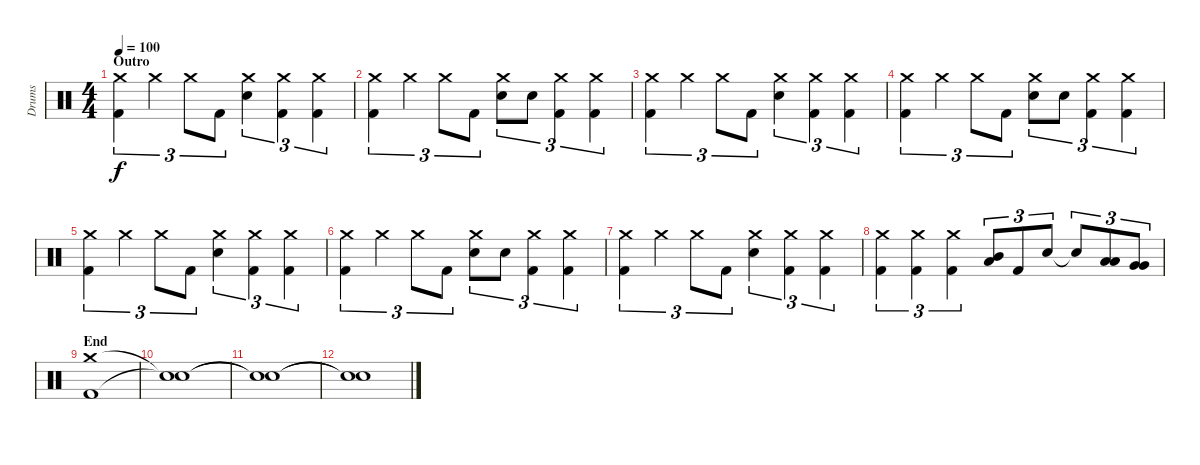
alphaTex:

\track ("Drums" "Drums") {instrument percussion}
\staff {score}
\articulation defaults
\ts (4 4)
\section ("" "Outro")
\tempo 100
\clef neutral
\ks c
("Crash medium (hit)" "Kick (hit) 2").4{tu (3 2) dy f} "Crash medium (hit)".4{tu (3 2)} "Crash medium (hit)".8{tu (3 2)} "Kick (hit) 2".8{tu (3 2)} ("Crash medium (hit)" "Electric Snare (hit)").4{tu (3 2)} ("Crash medium (hit)" "Kick (hit) 2").4{tu (3 2)} ("Crash medium (hit)" "Kick (hit) 2").4{tu (3 2)} |
("Crash medium (hit)" "Kick (hit) 2").4{tu (3 2)} "Crash medium (hit)".4{tu (3 2)} "Crash medium (hit)".8{tu (3 2)} "Kick (hit) 2".8{tu (3 2)} ("Crash medium (hit)" "Electric Snare (hit)").8{tu (3 2)} "Electric Snare (hit)".8{tu (3 2)} ("Crash medium (hit)" "Kick (hit) 2").4{tu (3 2)} ("Crash medium (hit)" "Kick (hit) 2").4{tu (3 2)} |
("Crash medium (hit)" "Kick (hit) 2").4{tu (3 2)} "Crash medium (hit)".4{tu (3 2)} "Crash medium (hit)".8{tu (3 2)} "Kick (hit) 2".8{tu (3 2)} ("Crash medium (hit)" "Electric Snare (hit)").4{tu (3 2)} ("Crash medium (hit)" "Kick (hit) 2").4{tu (3 2)} ("Crash medium (hit)" "Kick (hit) 2").4{tu (3 2)} |
("Crash medium (hit)" "Kick (hit) 2").4{tu (3 2)} "Crash medium (hit)".4{tu (3 2)} "Crash medium (hit)".8{tu (3 2)} "Kick (hit) 2".8{tu (3 2)} ("Crash medium (hit)" "Electric Snare (hit)").8{tu (3 2)} "Electric Snare (hit)".8{tu (3 2)} ("Crash medium (hit)" "Kick (hit) 2").4{tu (3 2)} ("Crash medium (hit)" "Kick (hit) 2").4{tu (3 2)} |
("Crash medium (hit)" "Kick (hit) 2").4{tu (3 2)} "Crash medium (hit)".4{tu (3 2)} "Crash medium (hit)".8{tu (3 2)} "Kick (hit) 2".8{tu (3 2)} ("Crash medium (hit)" "Electric Snare (hit)").4{tu (3 2)} ("Crash medium (hit)" "Kick (hit) 2").4{tu (3 2)} ("Crash medium (hit)" "Kick (hit) 2").4{tu (3 2)} |
("Crash medium (hit)" "Kick (hit) 2").4{tu (3 2)} "Crash medium (hit)".4{tu (3 2)} "Crash medium (hit)".8{tu (3 2)} "Kick (hit) 2".8{tu (3 2)} ("Crash medium (hit)" "Electric Snare (hit)").8{tu (3 2)} "Electric Snare (hit)".8{tu (3 2)} ("Crash medium (hit)" "Kick (hit) 2").4{tu (3 2)} ("Crash medium (hit)" "Kick (hit) 2").4{tu (3 2)} |
("Crash medium (hit)" "Kick (hit) 2").4{tu (3 2)} "Crash medium (hit)".4{tu (3 2)} "Crash medium (hit)".8{tu (3 2)} "Kick (hit) 2".8{tu (3 2)} ("Crash medium (hit)" "Electric Snare (hit)").4{tu (3 2)} ("Crash medium (hit)" "Kick (hit) 2").4{tu (3 2)} ("Crash medium (hit)" "Kick (hit) 2").4{tu (3 2)} |
("Crash medium (hit)" "Kick (hit) 2").4{tu (3 2)} ("Crash medium (hit)" "Kick (hit) 2").4{tu (3 2)} ("Crash medium (hit)" "Kick (hit) 2").4{tu (3 2)} ("Low Tom (hit)" "Mid Tom (hit)").8{tu (3 2)} "Kick (hit) 2".8{tu (3 2)} "Electric Snare (hit)".8{tu (3 2)} "Electric Snare (hit)"{t}.8{tu (3 2)} ("Low Tom (hit)" "Low Tom (hit)").8{tu (3 2)} ("Very Low Tom (hit)" "Very Low Tom (hit)").8{tu (3 2)} |
\section ("" "End")
("Crash medium (hit)" "Kick (hit) 2").1 |
("Snare (hit)"{t} "Snare (hit)"{t}).1 |
("Snare (hit)"{t} "Snare (hit)"{t}).1 |
("Snare (hit)"{t} "Snare (hit)"{t}).1
